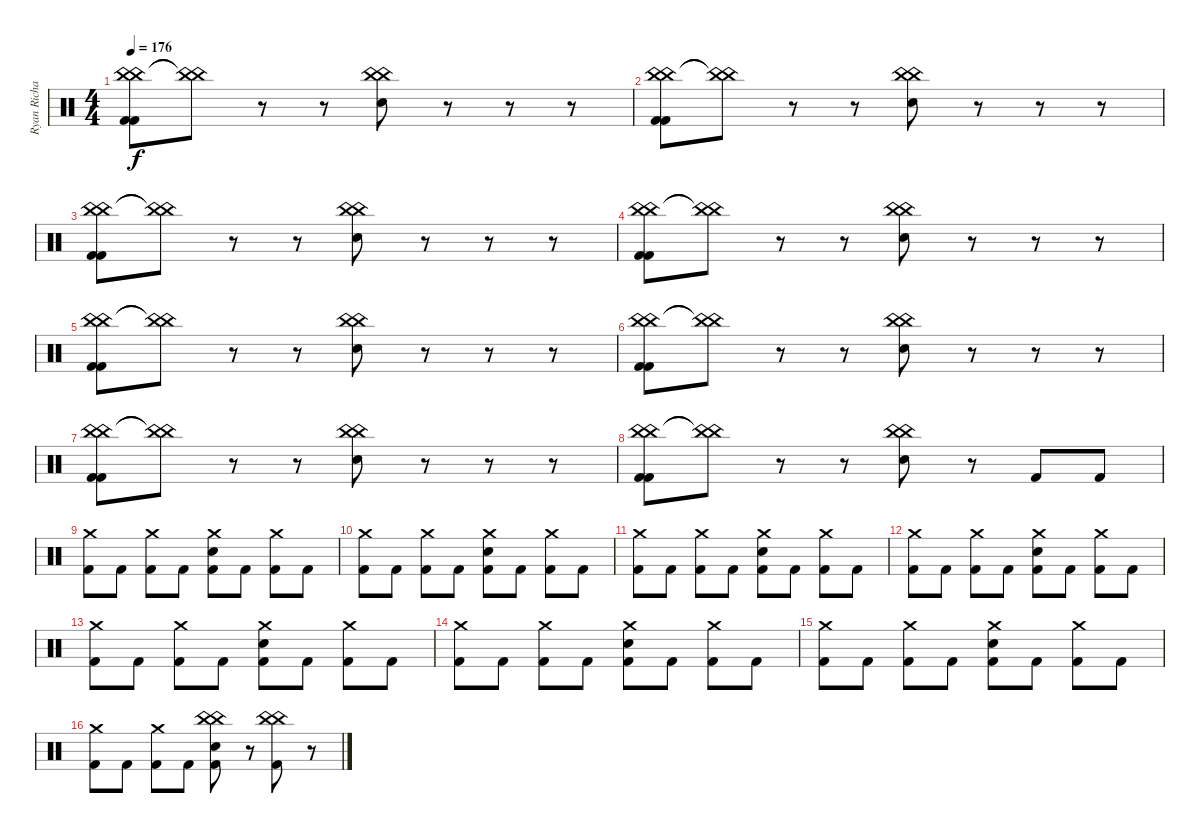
\track ("Ryan Richards (drums)" "Ryan Richa") {instrument percussion}
\staff {score}
\articulation defaults
\ts (4 4)
\tempo 176
\clef neutral
\ks c
("China (hit)" "China (hit)" "Kick (hit) 2" "Kick (hit) 2").8{dy f} ("China (hit)"{t} "China (hit)"{t}).8 r.8 r.8 ("China (hit)" "China (hit)" "Snare (hit) 2").8 r.8 r.8 r.8 |
("China (hit)" "China (hit)" "Kick (hit) 2" "Kick (hit) 2").8 ("China (hit)"{t} "China (hit)"{t}).8 r.8 r.8 ("China (hit)" "China (hit)" "Snare (hit) 2").8 r.8 r.8 r.8 |
("China (hit)" "China (hit)" "Kick (hit) 2" "Kick (hit) 2").8 ("China (hit)"{t} "China (hit)"{t}).8 r.8 r.8 ("China (hit)" "China (hit)" "Snare (hit) 2").8 r.8 r.8 r.8 |
("China (hit)" "China (hit)" "Kick (hit) 2" "Kick (hit) 2").8 ("China (hit)"{t} "China (hit)"{t}).8 r.8 r.8 ("China (hit)" "China (hit)" "Snare (hit) 2").8 r.8 r.8 r.8 |
("China (hit)" "China (hit)" "Kick (hit) 2" "Kick (hit) 2").8 ("China (hit)"{t} "China (hit)"{t}).8 r.8 r.8 ("China (hit)" "China (hit)" "Snare (hit) 2").8 r.8 r.8 r.8 |
("China (hit)" "China (hit)" "Kick (hit) 2" "Kick (hit) 2").8 ("China (hit)"{t} "China (hit)"{t}).8 r.8 r.8 ("China (hit)" "China (hit)" "Snare (hit) 2").8 r.8 r.8 r.8 |
("China (hit)" "China (hit)" "Kick (hit) 2" "Kick (hit) 2").8 ("China (hit)"{t} "China (hit)"{t}).8 r.8 r.8 ("China (hit)" "China (hit)" "Snare (hit) 2").8 r.8 r.8 r.8 |
("China (hit)" "China (hit)" "Kick (hit) 2" "Kick (hit) 2").8 ("China (hit)"{t} "China (hit)"{t}).8 r.8 r.8 ("China (hit)" "China (hit)" "Snare (hit) 2").8 r.8 "Kick (hit) 2".8 "Kick (hit) 2".8 |
("Crash medium (hit)" "Kick (hit) 2").8 "Kick (hit) 2".8 ("Crash medium (hit)" "Kick (hit) 2").8 "Kick (hit) 2".8 ("Crash medium (hit)" "Snare (hit) 2" "Kick (hit) 2").8 "Kick (hit) 2".8 ("Crash medium (hit)" "Kick (hit) 2").8 "Kick (hit) 2".8 |
("Crash medium (hit)" "Kick (hit) 2").8 "Kick (hit) 2".8 ("Crash medium (hit)" "Kick (hit) 2").8 "Kick (hit) 2".8 ("Crash medium (hit)" "Snare (hit) 2" "Kick (hit) 2").8 "Kick (hit) 2".8 ("Crash medium (hit)" "Kick (hit) 2").8 "Kick (hit) 2".8 |
("Crash medium (hit)" "Kick (hit) 2").8 "Kick (hit) 2".8 ("Crash medium (hit)" "Kick (hit) 2").8 "Kick (hit) 2".8 ("Crash medium (hit)" "Snare (hit) 2" "Kick (hit) 2").8 "Kick (hit) 2".8 ("Crash medium (hit)" "Kick (hit) 2").8 "Kick (hit) 2".8 |
("Crash medium (hit)" "Kick (hit) 2").8 "Kick (hit) 2".8 ("Crash medium (hit)" "Kick (hit) 2").8 "Kick (hit) 2".8 ("Crash medium (hit)" "Snare (hit) 2" "Kick (hit) 2").8 "Kick (hit) 2".8 ("Crash medium (hit)" "Kick (hit) 2").8 "Kick (hit) 2".8 |
("Crash medium (hit)" "Kick (hit) 2").8 "Kick (hit) 2".8 ("Crash medium (hit)" "Kick (hit) 2").8 "Kick (hit) 2".8 ("Crash medium (hit)" "Snare (hit) 2" "Kick (hit) 2").8 "Kick (hit) 2".8 ("Crash medium (hit)" "Kick (hit) 2").8 "Kick (hit) 2".8 |
("Crash medium (hit)" "Kick (hit) 2").8 "Kick (hit) 2".8 ("Crash medium (hit)" "Kick (hit) 2").8 "Kick (hit) 2".8 ("Crash medium (hit)" "Snare (hit) 2" "Kick (hit) 2").8 "Kick (hit) 2".8 ("Crash medium (hit)" "Kick (hit) 2").8 "Kick (hit) 2".8 |
("Crash medium (hit)" "Kick (hit) 2").8 "Kick (hit) 2".8 ("Crash medium (hit)" "Kick (hit) 2").8 "Kick (hit) 2".8 ("Crash medium (hit)" "Snare (hit) 2" "Kick (hit) 2").8 "Kick (hit) 2".8 ("Crash medium (hit)" "Kick (hit) 2").8 "Kick (hit) 2".8 |
("Crash medium (hit)" "Kick (hit) 2").8 "Kick (hit) 2".8 ("Crash medium (hit)" "Kick (hit) 2").8 "Kick (hit) 2".8 ("China (hit)" "China (hit)" "Snare (hit) 2" "Kick (hit) 2").8 r.8 ("China (hit)" "China (hit)" "Kick (hit) 2").8 r.8
